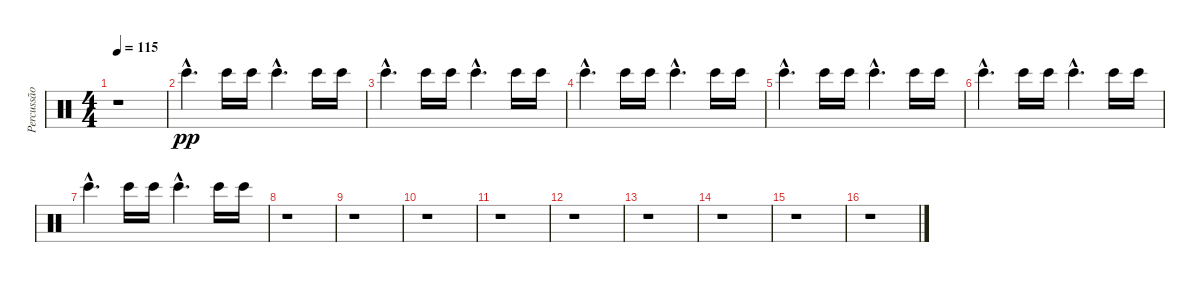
\track ("Percussão" "Percussão") {instrument percussion}
\staff {score}
\articulation defaults
\ts (4 4)
\tempo 115
\clef neutral
\ks c
r.1{dy f} |
"Bongo High (hit)"{hac}.4{d dy pp} "Bongo High (hit)".16 "Bongo High (hit)".16 "Bongo High (hit)"{hac}.4{d} "Bongo High (hit)".16 "Bongo High (hit)".16 |
"Bongo High (hit)"{hac}.4{d} "Bongo High (hit)".16 "Bongo High (hit)".16 "Bongo High (hit)"{hac}.4{d} "Bongo High (hit)".16 "Bongo High (hit)".16 |
"Bongo High (hit)"{hac}.4{d} "Bongo High (hit)".16 "Bongo High (hit)".16 "Bongo High (hit)"{hac}.4{d} "Bongo High (hit)".16 "Bongo High (hit)".16 |
"Bongo High (hit)"{hac}.4{d} "Bongo High (hit)".16 "Bongo High (hit)".16 "Bongo High (hit)"{hac}.4{d} "Bongo High (hit)".16 "Bongo High (hit)".16 |
"Bongo High (hit)"{hac}.4{d} "Bongo High (hit)".16 "Bongo High (hit)".16 "Bongo High (hit)"{hac}.4{d} "Bongo High (hit)".16 "Bongo High (hit)".16 |
"Bongo High (hit)"{hac}.4{d} "Bongo High (hit)".16 "Bongo High (hit)".16 "Bongo High (hit)"{hac}.4{d} "Bongo High (hit)".16 "Bongo High (hit)".16 |
r.1 |
r.1 |
r.1 |
r.1 |
r.1 |
r.1 |
r.1 |
r.1 |
r.1
